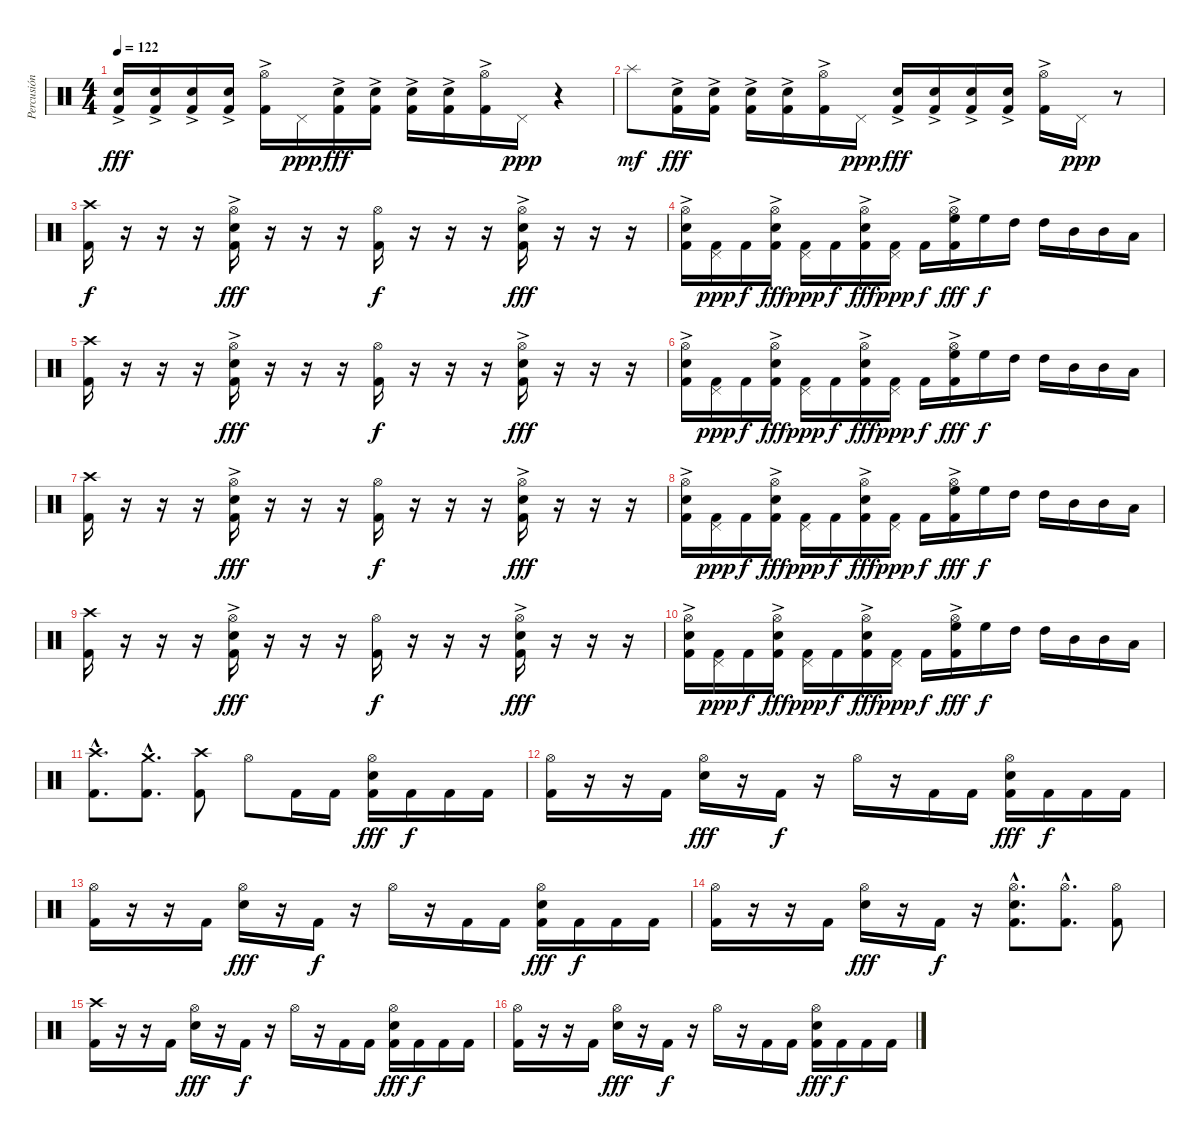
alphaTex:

\track ("Percusión" "Percusión") {instrument percussion}
\staff {score}
\articulation defaults
\ts (4 4)
\tempo 122
\clef neutral
\ks c
("Electric Snare (hit)"{ac} "Kick (hit) 2").16{dy fff} ("Electric Snare (hit)"{ac} "Kick (hit) 2").16 ("Electric Snare (hit)"{ac} "Kick (hit) 2").16 ("Electric Snare (hit)"{ac} "Kick (hit) 2").16 ("Hi-Hat (open)"{ac} "Kick (hit) 2").16 "Pedal Hi-Hat (hit)".16{dy ppp} ("Electric Snare (hit)"{ac} "Kick (hit) 2").16{dy fff} ("Electric Snare (hit)"{ac} "Kick (hit) 2").16 ("Electric Snare (hit)"{ac} "Kick (hit) 2").16 ("Electric Snare (hit)"{ac} "Kick (hit) 2").16 ("Hi-Hat (open)"{ac} "Kick (hit) 2").16 "Pedal Hi-Hat (hit)".16{dy ppp} r.4 |
"Splash (hit)".8{dy mf} ("Electric Snare (hit)"{ac} "Kick (hit) 2").16{dy fff} ("Electric Snare (hit)"{ac} "Kick (hit) 2").16 ("Electric Snare (hit)"{ac} "Kick (hit) 2").16 ("Electric Snare (hit)"{ac} "Kick (hit) 2").16 ("Hi-Hat (open)"{ac} "Kick (hit) 2").16 "Pedal Hi-Hat (hit)".16{dy ppp} ("Electric Snare (hit)"{ac} "Kick (hit) 2").16{dy fff} ("Electric Snare (hit)"{ac} "Kick (hit) 2").16 ("Electric Snare (hit)"{ac} "Kick (hit) 2").16 ("Electric Snare (hit)"{ac} "Kick (hit) 2").16 ("Hi-Hat (open)"{ac} "Kick (hit) 2").16 "Pedal Hi-Hat (hit)".16{dy ppp} r.8 |
("Crash high (hit)" "Kick (hit) 2").16{dy f} r.16 r.16 r.16 ("Hi-Hat (open)" "Electric Snare (hit)"{ac} "Kick (hit) 2").16{dy fff} r.16 r.16 r.16 ("Hi-Hat (open)" "Kick (hit) 2").16{dy f} r.16 r.16 r.16 ("Hi-Hat (open)" "Electric Snare (hit)"{ac} "Kick (hit) 2").16{dy fff} r.16 r.16 r.16 |
("Hi-Hat (open)"{ac} "Electric Snare (hit)"{ac} "Kick (hit) 2").16 ("Pedal Hi-Hat (hit)" "Kick (hit) 2").16{dy ppp} "Kick (hit) 2".16{dy f} ("Hi-Hat (open)"{ac} "Electric Snare (hit)"{ac} "Kick (hit) 2").16{dy fff} ("Pedal Hi-Hat (hit)" "Kick (hit) 2").16{dy ppp} "Kick (hit) 2".16{dy f} ("Hi-Hat (open)"{ac} "Electric Snare (hit)"{ac} "Kick (hit) 2").16{dy fff} ("Pedal Hi-Hat (hit)" "Kick (hit) 2").16{dy ppp} "Kick (hit) 2".16{dy f} ("Hi-Hat (open)"{ac} "High Floor Tom (hit)" "Kick (hit) 2").16{dy fff} "High Floor Tom (hit)".16{dy f} "High Tom (hit)".16 "High Tom (hit)".16 "Mid Tom (hit)".16 "Mid Tom (hit)".16 "Low Tom (hit)".16 |
("Crash high (hit)" "Kick (hit) 2").16 r.16 r.16 r.16 ("Hi-Hat (open)" "Electric Snare (hit)"{ac} "Kick (hit) 2").16{dy fff} r.16 r.16 r.16 ("Hi-Hat (open)" "Kick (hit) 2").16{dy f} r.16 r.16 r.16 ("Hi-Hat (open)" "Electric Snare (hit)"{ac} "Kick (hit) 2").16{dy fff} r.16 r.16 r.16 |
("Hi-Hat (open)"{ac} "Electric Snare (hit)"{ac} "Kick (hit) 2").16 ("Pedal Hi-Hat (hit)" "Kick (hit) 2").16{dy ppp} "Kick (hit) 2".16{dy f} ("Hi-Hat (open)"{ac} "Electric Snare (hit)"{ac} "Kick (hit) 2").16{dy fff} ("Pedal Hi-Hat (hit)" "Kick (hit) 2").16{dy ppp} "Kick (hit) 2".16{dy f} ("Hi-Hat (open)"{ac} "Electric Snare (hit)"{ac} "Kick (hit) 2").16{dy fff} ("Pedal Hi-Hat (hit)" "Kick (hit) 2").16{dy ppp} "Kick (hit) 2".16{dy f} ("Hi-Hat (open)"{ac} "High Floor Tom (hit)" "Kick (hit) 2").16{dy fff} "High Floor Tom (hit)".16{dy f} "High Tom (hit)".16 "High Tom (hit)".16 "Mid Tom (hit)".16 "Mid Tom (hit)".16 "Low Tom (hit)".16 |
("Crash high (hit)" "Kick (hit) 2").16 r.16 r.16 r.16 ("Hi-Hat (open)" "Electric Snare (hit)"{ac} "Kick (hit) 2").16{dy fff} r.16 r.16 r.16 ("Hi-Hat (open)" "Kick (hit) 2").16{dy f} r.16 r.16 r.16 ("Hi-Hat (open)" "Electric Snare (hit)"{ac} "Kick (hit) 2").16{dy fff} r.16 r.16 r.16 |
("Hi-Hat (open)"{ac} "Electric Snare (hit)"{ac} "Kick (hit) 2").16 ("Pedal Hi-Hat (hit)" "Kick (hit) 2").16{dy ppp} "Kick (hit) 2".16{dy f} ("Hi-Hat (open)"{ac} "Electric Snare (hit)"{ac} "Kick (hit) 2").16{dy fff} ("Pedal Hi-Hat (hit)" "Kick (hit) 2").16{dy ppp} "Kick (hit) 2".16{dy f} ("Hi-Hat (open)"{ac} "Electric Snare (hit)"{ac} "Kick (hit) 2").16{dy fff} ("Pedal Hi-Hat (hit)" "Kick (hit) 2").16{dy ppp} "Kick (hit) 2".16{dy f} ("Hi-Hat (open)"{ac} "High Floor Tom (hit)" "Kick (hit) 2").16{dy fff} "High Floor Tom (hit)".16{dy f} "High Tom (hit)".16 "High Tom (hit)".16 "Mid Tom (hit)".16 "Mid Tom (hit)".16 "Low Tom (hit)".16 |
("Crash high (hit)" "Kick (hit) 2").16 r.16 r.16 r.16 ("Hi-Hat (open)" "Electric Snare (hit)"{ac} "Kick (hit) 2").16{dy fff} r.16 r.16 r.16 ("Hi-Hat (open)" "Kick (hit) 2").16{dy f} r.16 r.16 r.16 ("Hi-Hat (open)" "Electric Snare (hit)"{ac} "Kick (hit) 2").16{dy fff} r.16 r.16 r.16 |
("Hi-Hat (open)"{ac} "Electric Snare (hit)"{ac} "Kick (hit) 2").16 ("Pedal Hi-Hat (hit)" "Kick (hit) 2").16{dy ppp} "Kick (hit) 2".16{dy f} ("Hi-Hat (open)"{ac} "Electric Snare (hit)"{ac} "Kick (hit) 2").16{dy fff} ("Pedal Hi-Hat (hit)" "Kick (hit) 2").16{dy ppp} "Kick (hit) 2".16{dy f} ("Hi-Hat (open)"{ac} "Electric Snare (hit)"{ac} "Kick (hit) 2").16{dy fff} ("Pedal Hi-Hat (hit)" "Kick (hit) 2").16{dy ppp} "Kick (hit) 2".16{dy f} ("Hi-Hat (open)"{ac} "High Floor Tom (hit)" "Kick (hit) 2").16{dy fff} "High Floor Tom (hit)".16{dy f} "High Tom (hit)".16 "High Tom (hit)".16 "Mid Tom (hit)".16 "Mid Tom (hit)".16 "Low Tom (hit)".16 |
("Crash high (hit)"{hac} "Kick (hit) 2"{hac}).8{d} ("Crash medium (hit)"{hac} "Kick (hit) 2"{hac}).8{d} ("Crash high (hit)" "Kick (hit) 2").8 "Hi-Hat (open)".8 "Kick (hit) 2".16 "Kick (hit) 2".16 ("Hi-Hat (open)" "Electric Snare (hit)" "Kick (hit) 2").16{dy fff} "Kick (hit) 2".16{dy f} "Kick (hit) 2".16 "Kick (hit) 2".16 |
("Hi-Hat (open)" "Kick (hit) 2").16 r.16 r.16 "Kick (hit) 2".16 ("Hi-Hat (open)" "Electric Snare (hit)").16{dy fff} r.16 "Kick (hit) 2".16{dy f} r.16 "Hi-Hat (open)".16 r.16 "Kick (hit) 2".16 "Kick (hit) 2".16 ("Hi-Hat (open)" "Electric Snare (hit)" "Kick (hit) 2").16{dy fff} "Kick (hit) 2".16{dy f} "Kick (hit) 2".16 "Kick (hit) 2".16 |
("Hi-Hat (open)" "Kick (hit) 2").16 r.16 r.16 "Kick (hit) 2".16 ("Hi-Hat (open)" "Electric Snare (hit)").16{dy fff} r.16 "Kick (hit) 2".16{dy f} r.16 "Hi-Hat (open)".16 r.16 "Kick (hit) 2".16 "Kick (hit) 2".16 ("Hi-Hat (open)" "Electric Snare (hit)" "Kick (hit) 2").16{dy fff} "Kick (hit) 2".16{dy f} "Kick (hit) 2".16 "Kick (hit) 2".16 |
("Hi-Hat (open)" "Kick (hit) 2").16 r.16 r.16 "Kick (hit) 2".16 ("Hi-Hat (open)" "Electric Snare (hit)").16{dy fff} r.16 "Kick (hit) 2".16{dy f} r.16 ("Hi-Hat (open)"{hac} "Electric Snare (hit)"{hac} "Kick (hit) 2"{hac}).8{d} ("Hi-Hat (open)"{hac} "Kick (hit) 2"{hac}).8{d} ("Hi-Hat (open)" "Kick (hit) 2").8 |
("Crash high (hit)" "Kick (hit) 2").16 r.16 r.16 "Kick (hit) 2".16 ("Hi-Hat (open)" "Electric Snare (hit)").16{dy fff} r.16 "Kick (hit) 2".16{dy f} r.16 "Hi-Hat (open)".16 r.16 "Kick (hit) 2".16 "Kick (hit) 2".16 ("Hi-Hat (open)" "Electric Snare (hit)" "Kick (hit) 2").16{dy fff} "Kick (hit) 2".16{dy f} "Kick (hit) 2".16 "Kick (hit) 2".16 |
("Hi-Hat (open)" "Kick (hit) 2").16 r.16 r.16 "Kick (hit) 2".16 ("Hi-Hat (open)" "Electric Snare (hit)").16{dy fff} r.16 "Kick (hit) 2".16{dy f} r.16 "Hi-Hat (open)".16 r.16 "Kick (hit) 2".16 "Kick (hit) 2".16 ("Hi-Hat (open)" "Electric Snare (hit)" "Kick (hit) 2").16{dy fff} "Kick (hit) 2".16{dy f} "Kick (hit) 2".16 "Kick (hit) 2".16
